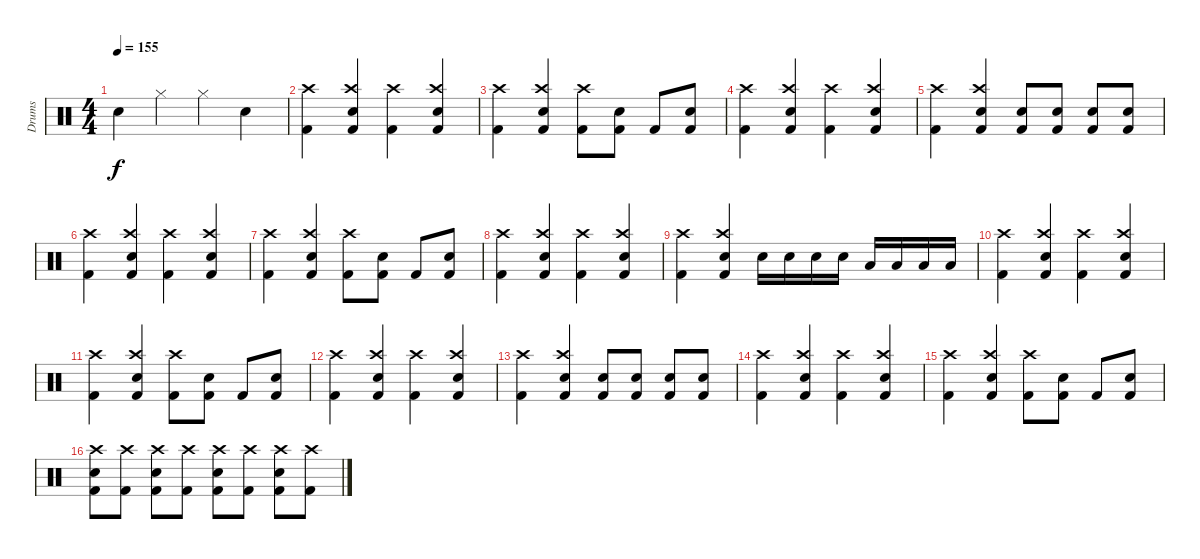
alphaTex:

\track ("Drums" "Drums") {instrument percussion}
\staff {score}
\articulation defaults
\ts (4 4)
\tempo 155
\clef neutral
\ks c "Snare (hit) 2".4{dy f} "Hi-Hat (closed)".4 "Hi-Hat (closed)".4 "Snare (hit) 2".4
|
("Crash high (hit)" "Kick (hit) 2").4 ("Crash high (hit)" "Snare (hit) 2" "Kick (hit) 2").4 ("Crash high (hit)" "Kick (hit) 2").4 ("Crash high (hit)" "Snare (hit) 2" "Kick (hit) 2").4 |
("Crash high (hit)" "Kick (hit) 2").4 ("Crash high (hit)" "Snare (hit) 2" "Kick (hit) 2").4 ("Crash high (hit)" "Kick (hit) 2").8 ("Snare (hit) 2" "Kick (hit) 2").8 "Kick (hit) 2".8 ("Snare (hit) 2" "Kick (hit) 2").8 |
("Crash high (hit)" "Kick (hit) 2").4 ("Crash high (hit)" "Snare (hit) 2" "Kick (hit) 2").4 ("Crash high (hit)" "Kick (hit) 2").4 ("Crash high (hit)" "Snare (hit) 2" "Kick (hit) 2").4 |
("Crash high (hit)" "Kick (hit) 2").4 ("Crash high (hit)" "Snare (hit) 2" "Kick (hit) 2").4 ("Snare (hit) 2" "Kick (hit) 2").8 ("Snare (hit) 2" "Kick (hit) 2").8 ("Snare (hit) 2" "Kick (hit) 2").8 ("Snare (hit) 2" "Kick (hit) 2").8 |
("Crash high (hit)" "Kick (hit) 2").4 ("Crash high (hit)" "Snare (hit) 2" "Kick (hit) 2").4 ("Crash high (hit)" "Kick (hit) 2").4 ("Crash high (hit)" "Snare (hit) 2" "Kick (hit) 2").4 |
("Crash high (hit)" "Kick (hit) 2").4 ("Crash high (hit)" "Snare (hit) 2" "Kick (hit) 2").4 ("Crash high (hit)" "Kick (hit) 2").8 ("Snare (hit) 2" "Kick (hit) 2").8 "Kick (hit) 2".8 ("Snare (hit) 2" "Kick (hit) 2").8 |
("Crash high (hit)" "Kick (hit) 2").4 ("Crash high (hit)" "Snare (hit) 2" "Kick (hit) 2").4 ("Crash high (hit)" "Kick (hit) 2").4 ("Crash high (hit)" "Snare (hit) 2" "Kick (hit) 2").4 |
("Crash high (hit)" "Kick (hit) 2").4 ("Crash high (hit)" "Snare (hit) 2" "Kick (hit) 2").4 "Snare (hit) 2".16 "Snare (hit) 2".16 "Snare (hit) 2".16 "Snare (hit) 2".16 "Low Floor Tom (hit)".16 "Low Floor Tom (hit)".16 "Low Floor Tom (hit)".16 "Low Floor Tom (hit)".16 |
("Crash high (hit)" "Kick (hit) 2").4 ("Crash high (hit)" "Snare (hit) 2" "Kick (hit) 2").4 ("Crash high (hit)" "Kick (hit) 2").4 ("Crash high (hit)" "Snare (hit) 2" "Kick (hit) 2").4 |
("Crash high (hit)" "Kick (hit) 2").4 ("Crash high (hit)" "Snare (hit) 2" "Kick (hit) 2").4 ("Crash high (hit)" "Kick (hit) 2").8 ("Snare (hit) 2" "Kick (hit) 2").8 "Kick (hit) 2".8 ("Snare (hit) 2" "Kick (hit) 2").8 |
("Crash high (hit)" "Kick (hit) 2").4 ("Crash high (hit)" "Snare (hit) 2" "Kick (hit) 2").4 ("Crash high (hit)" "Kick (hit) 2").4 ("Crash high (hit)" "Snare (hit) 2" "Kick (hit) 2").4 |
("Crash high (hit)" "Kick (hit) 2").4 ("Crash high (hit)" "Snare (hit) 2" "Kick (hit) 2").4 ("Snare (hit) 2" "Kick (hit) 2").8 ("Snare (hit) 2" "Kick (hit) 2").8 ("Snare (hit) 2" "Kick (hit) 2").8 ("Snare (hit) 2" "Kick (hit) 2").8 |
("Crash high (hit)" "Kick (hit) 2").4 ("Crash high (hit)" "Snare (hit) 2" "Kick (hit) 2").4 ("Crash high (hit)" "Kick (hit) 2").4 ("Crash high (hit)" "Snare (hit) 2" "Kick (hit) 2").4 |
("Crash high (hit)" "Kick (hit) 2").4 ("Crash high (hit)" "Snare (hit) 2" "Kick (hit) 2").4 ("Crash high (hit)" "Kick (hit) 2").8 ("Snare (hit) 2" "Kick (hit) 2").8 "Kick (hit) 2".8 ("Snare (hit) 2" "Kick (hit) 2").8 |
("Crash high (hit)" "Snare (hit) 2" "Kick (hit) 2").8 ("Crash high (hit)" "Kick (hit) 2").8 ("Crash high (hit)" "Snare (hit) 2" "Kick (hit) 2").8 ("Crash high (hit)" "Kick (hit) 2").8 ("Crash high (hit)" "Snare (hit) 2" "Kick (hit) 2").8 ("Crash high (hit)" "Kick (hit) 2").8 ("Crash high (hit)" "Snare (hit) 2" "Kick (hit) 2").8 ("Crash high (hit)" "Kick (hit) 2").8
